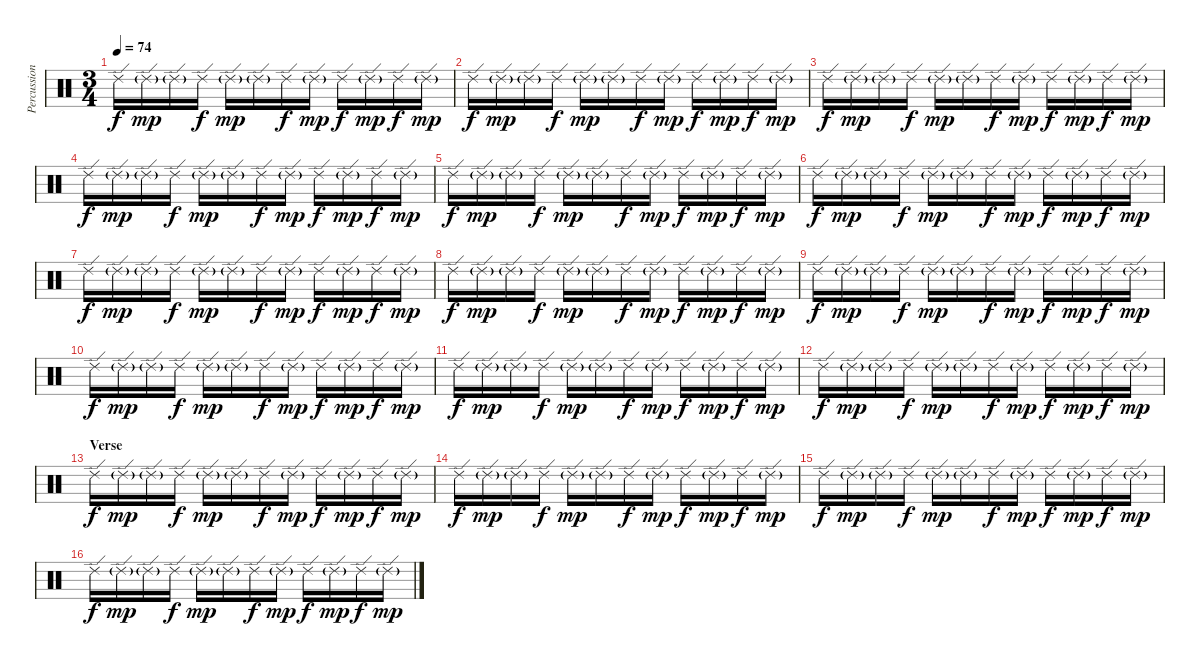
\track ("Percussion" "Percussion") {instrument percussion}
\staff {score}
\articulation defaults
\ts (3 4)
\tempo 74
\clef neutral
\ks c "Ride (edge) 2".16{dy f} "Ride (edge) 2"{g}.16{dy mp} "Ride (edge) 2"{g}.16 "Ride (edge) 2".16{dy f} "Ride (edge) 2"{g}.16{dy mp} "Ride (edge) 2"{g}.16 "Ride (edge) 2".16{dy f} "Ride (edge) 2"{g}.16{dy mp} "Ride (edge) 2".16{dy f} "Ride (edge) 2"{g}.16{dy mp} "Ride (edge) 2".16{dy f} "Ride (edge) 2"{g}.16{dy mp}
|
"Ride (edge) 2".16{dy f} "Ride (edge) 2"{g}.16{dy mp} "Ride (edge) 2"{g}.16 "Ride (edge) 2".16{dy f} "Ride (edge) 2"{g}.16{dy mp} "Ride (edge) 2"{g}.16 "Ride (edge) 2".16{dy f} "Ride (edge) 2"{g}.16{dy mp} "Ride (edge) 2".16{dy f} "Ride (edge) 2"{g}.16{dy mp} "Ride (edge) 2".16{dy f} "Ride (edge) 2"{g}.16{dy mp} |
"Ride (edge) 2".16{dy f} "Ride (edge) 2"{g}.16{dy mp} "Ride (edge) 2"{g}.16 "Ride (edge) 2".16{dy f} "Ride (edge) 2"{g}.16{dy mp} "Ride (edge) 2"{g}.16 "Ride (edge) 2".16{dy f} "Ride (edge) 2"{g}.16{dy mp} "Ride (edge) 2".16{dy f} "Ride (edge) 2"{g}.16{dy mp} "Ride (edge) 2".16{dy f} "Ride (edge) 2"{g}.16{dy mp} |
"Ride (edge) 2".16{dy f} "Ride (edge) 2"{g}.16{dy mp} "Ride (edge) 2"{g}.16 "Ride (edge) 2".16{dy f} "Ride (edge) 2"{g}.16{dy mp} "Ride (edge) 2"{g}.16 "Ride (edge) 2".16{dy f} "Ride (edge) 2"{g}.16{dy mp} "Ride (edge) 2".16{dy f} "Ride (edge) 2"{g}.16{dy mp} "Ride (edge) 2".16{dy f} "Ride (edge) 2"{g}.16{dy mp} |
"Ride (edge) 2".16{dy f} "Ride (edge) 2"{g}.16{dy mp} "Ride (edge) 2"{g}.16 "Ride (edge) 2".16{dy f} "Ride (edge) 2"{g}.16{dy mp} "Ride (edge) 2"{g}.16 "Ride (edge) 2".16{dy f} "Ride (edge) 2"{g}.16{dy mp} "Ride (edge) 2".16{dy f} "Ride (edge) 2"{g}.16{dy mp} "Ride (edge) 2".16{dy f} "Ride (edge) 2"{g}.16{dy mp} |
"Ride (edge) 2".16{dy f} "Ride (edge) 2"{g}.16{dy mp} "Ride (edge) 2"{g}.16 "Ride (edge) 2".16{dy f} "Ride (edge) 2"{g}.16{dy mp} "Ride (edge) 2"{g}.16 "Ride (edge) 2".16{dy f} "Ride (edge) 2"{g}.16{dy mp} "Ride (edge) 2".16{dy f} "Ride (edge) 2"{g}.16{dy mp} "Ride (edge) 2".16{dy f} "Ride (edge) 2"{g}.16{dy mp} |
"Ride (edge) 2".16{dy f} "Ride (edge) 2"{g}.16{dy mp} "Ride (edge) 2"{g}.16 "Ride (edge) 2".16{dy f} "Ride (edge) 2"{g}.16{dy mp} "Ride (edge) 2"{g}.16 "Ride (edge) 2".16{dy f} "Ride (edge) 2"{g}.16{dy mp} "Ride (edge) 2".16{dy f} "Ride (edge) 2"{g}.16{dy mp} "Ride (edge) 2".16{dy f} "Ride (edge) 2"{g}.16{dy mp} |
"Ride (edge) 2".16{dy f} "Ride (edge) 2"{g}.16{dy mp} "Ride (edge) 2"{g}.16 "Ride (edge) 2".16{dy f} "Ride (edge) 2"{g}.16{dy mp} "Ride (edge) 2"{g}.16 "Ride (edge) 2".16{dy f} "Ride (edge) 2"{g}.16{dy mp} "Ride (edge) 2".16{dy f} "Ride (edge) 2"{g}.16{dy mp} "Ride (edge) 2".16{dy f} "Ride (edge) 2"{g}.16{dy mp} |
"Ride (edge) 2".16{dy f} "Ride (edge) 2"{g}.16{dy mp} "Ride (edge) 2"{g}.16 "Ride (edge) 2".16{dy f} "Ride (edge) 2"{g}.16{dy mp} "Ride (edge) 2"{g}.16 "Ride (edge) 2".16{dy f} "Ride (edge) 2"{g}.16{dy mp} "Ride (edge) 2".16{dy f} "Ride (edge) 2"{g}.16{dy mp} "Ride (edge) 2".16{dy f} "Ride (edge) 2"{g}.16{dy mp} |
"Ride (edge) 2".16{dy f} "Ride (edge) 2"{g}.16{dy mp} "Ride (edge) 2"{g}.16 "Ride (edge) 2".16{dy f} "Ride (edge) 2"{g}.16{dy mp} "Ride (edge) 2"{g}.16 "Ride (edge) 2".16{dy f} "Ride (edge) 2"{g}.16{dy mp} "Ride (edge) 2".16{dy f} "Ride (edge) 2"{g}.16{dy mp} "Ride (edge) 2".16{dy f} "Ride (edge) 2"{g}.16{dy mp} |
"Ride (edge) 2".16{dy f} "Ride (edge) 2"{g}.16{dy mp} "Ride (edge) 2"{g}.16 "Ride (edge) 2".16{dy f} "Ride (edge) 2"{g}.16{dy mp} "Ride (edge) 2"{g}.16 "Ride (edge) 2".16{dy f} "Ride (edge) 2"{g}.16{dy mp} "Ride (edge) 2".16{dy f} "Ride (edge) 2"{g}.16{dy mp} "Ride (edge) 2".16{dy f} "Ride (edge) 2"{g}.16{dy mp} |
"Ride (edge) 2".16{dy f} "Ride (edge) 2"{g}.16{dy mp} "Ride (edge) 2"{g}.16 "Ride (edge) 2".16{dy f} "Ride (edge) 2"{g}.16{dy mp} "Ride (edge) 2"{g}.16 "Ride (edge) 2".16{dy f} "Ride (edge) 2"{g}.16{dy mp} "Ride (edge) 2".16{dy f} "Ride (edge) 2"{g}.16{dy mp} "Ride (edge) 2".16{dy f} "Ride (edge) 2"{g}.16{dy mp} |
\section ("" "Verse")
"Ride (edge) 2".16{dy f} "Ride (edge) 2"{g}.16{dy mp} "Ride (edge) 2"{g}.16 "Ride (edge) 2".16{dy f} "Ride (edge) 2"{g}.16{dy mp} "Ride (edge) 2"{g}.16 "Ride (edge) 2".16{dy f} "Ride (edge) 2"{g}.16{dy mp} "Ride (edge) 2".16{dy f} "Ride (edge) 2"{g}.16{dy mp} "Ride (edge) 2".16{dy f} "Ride (edge) 2"{g}.16{dy mp} |
"Ride (edge) 2".16{dy f} "Ride (edge) 2"{g}.16{dy mp} "Ride (edge) 2"{g}.16 "Ride (edge) 2".16{dy f} "Ride (edge) 2"{g}.16{dy mp} "Ride (edge) 2"{g}.16 "Ride (edge) 2".16{dy f} "Ride (edge) 2"{g}.16{dy mp} "Ride (edge) 2".16{dy f} "Ride (edge) 2"{g}.16{dy mp} "Ride (edge) 2".16{dy f} "Ride (edge) 2"{g}.16{dy mp} |
"Ride (edge) 2".16{dy f} "Ride (edge) 2"{g}.16{dy mp} "Ride (edge) 2"{g}.16 "Ride (edge) 2".16{dy f} "Ride (edge) 2"{g}.16{dy mp} "Ride (edge) 2"{g}.16 "Ride (edge) 2".16{dy f} "Ride (edge) 2"{g}.16{dy mp} "Ride (edge) 2".16{dy f} "Ride (edge) 2"{g}.16{dy mp} "Ride (edge) 2".16{dy f} "Ride (edge) 2"{g}.16{dy mp} |
"Ride (edge) 2".16{dy f} "Ride (edge) 2"{g}.16{dy mp} "Ride (edge) 2"{g}.16 "Ride (edge) 2".16{dy f} "Ride (edge) 2"{g}.16{dy mp} "Ride (edge) 2"{g}.16 "Ride (edge) 2".16{dy f} "Ride (edge) 2"{g}.16{dy mp} "Ride (edge) 2".16{dy f} "Ride (edge) 2"{g}.16{dy mp} "Ride (edge) 2".16{dy f} "Ride (edge) 2"{g}.16{dy mp}
